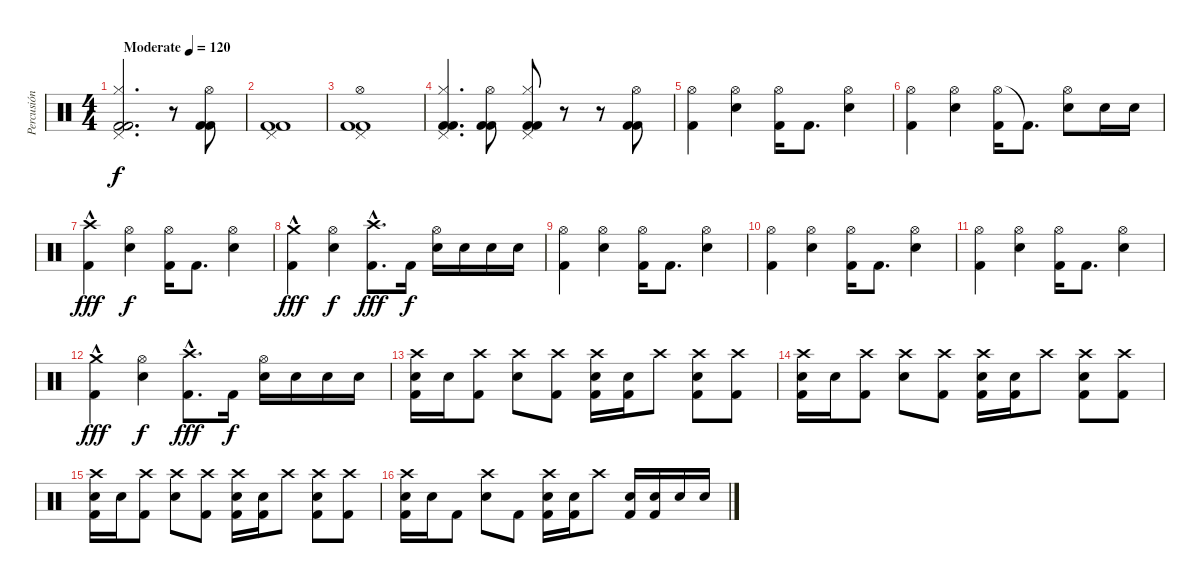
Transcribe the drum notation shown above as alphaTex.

\track ("Percusión" "Percusión") {instrument percussion}
\staff {score}
\articulation defaults
\ts (4 4)
\tempo (120 "Moderate")
\clef neutral
\ks c
("Pedal Hi-Hat (hit)" "Hi-Hat (closed)" "Kick (hit) 2" "Kick (hit) 2").2{d dy f} r.8 ("Hi-Hat (open)" "Kick (hit) 2" "Kick (hit) 2").8 |
("Pedal Hi-Hat (hit)" "Kick (hit) 2" "Kick (hit) 2").1 |
("Hi-Hat (open)" "Pedal Hi-Hat (hit)" "Kick (hit) 2" "Kick (hit) 2").1 |
("Pedal Hi-Hat (hit)" "Hi-Hat (closed)" "Kick (hit) 2" "Kick (hit) 2").4{d} ("Hi-Hat (open)" "Kick (hit) 2" "Kick (hit) 2").8 ("Pedal Hi-Hat (hit)" "Hi-Hat (closed)" "Kick (hit) 2" "Kick (hit) 2").8 r.8 r.8 ("Hi-Hat (open)" "Kick (hit) 2" "Kick (hit) 2").8 |
("Hi-Hat (open)" "Kick (hit) 2").4 ("Hi-Hat (open)" "Electric Snare (hit)").4 ("Hi-Hat (open)" "Kick (hit) 2").16 "Kick (hit) 2".8{d} ("Hi-Hat (open)" "Electric Snare (hit)").4 |
("Hi-Hat (open)" "Kick (hit) 2").4 ("Hi-Hat (open)" "Electric Snare (hit)").4 ("Hi-Hat (open)" "Kick (hit) 2").16 "Kick (hit) 2"{t}.8{d} ("Hi-Hat (open)" "Electric Snare (hit)").8 "Electric Snare (hit)".16 "Electric Snare (hit)".16 |
("Crash high (hit)"{hac} "Kick (hit) 2").4{dy fff} ("Hi-Hat (open)" "Electric Snare (hit)").4{dy f} ("Hi-Hat (open)" "Kick (hit) 2").16 "Kick (hit) 2".8{d} ("Hi-Hat (open)" "Electric Snare (hit)").4 |
("Crash medium (hit)"{hac} "Kick (hit) 2").4{dy fff} ("Hi-Hat (open)" "Electric Snare (hit)").4{dy f} ("Crash high (hit)"{hac} "Kick (hit) 2").8{d dy fff} "Kick (hit) 2".16{dy f} ("Hi-Hat (open)" "Electric Snare (hit)").16 "Electric Snare (hit)".16 "Electric Snare (hit)".16 "Electric Snare (hit)".16 |
("Hi-Hat (open)" "Kick (hit) 2").4 ("Hi-Hat (open)" "Electric Snare (hit)").4 ("Hi-Hat (open)" "Kick (hit) 2").16 "Kick (hit) 2".8{d} ("Hi-Hat (open)" "Electric Snare (hit)").4 |
("Hi-Hat (open)" "Kick (hit) 2").4 ("Hi-Hat (open)" "Electric Snare (hit)").4 ("Hi-Hat (open)" "Kick (hit) 2").16 "Kick (hit) 2".8{d} ("Hi-Hat (open)" "Electric Snare (hit)").4 |
("Hi-Hat (open)" "Kick (hit) 2").4 ("Hi-Hat (open)" "Electric Snare (hit)").4 ("Hi-Hat (open)" "Kick (hit) 2").16 "Kick (hit) 2".8{d} ("Hi-Hat (open)" "Electric Snare (hit)").4 |
("Crash medium (hit)"{hac} "Kick (hit) 2").4{dy fff} ("Hi-Hat (open)" "Electric Snare (hit)").4{dy f} ("Crash high (hit)"{hac} "Kick (hit) 2").8{d dy fff} "Kick (hit) 2".16{dy f} ("Hi-Hat (open)" "Electric Snare (hit)").16 "Electric Snare (hit)".16 "Electric Snare (hit)".16 "Electric Snare (hit)".16 |
("Crash high (hit)" "Electric Snare (hit)" "Kick (hit) 2").16 "Electric Snare (hit)".16 ("Crash high (hit)" "Kick (hit) 2").8 ("Crash high (hit)" "Electric Snare (hit)").8 ("Crash high (hit)" "Kick (hit) 2").8 ("Crash high (hit)" "Electric Snare (hit)" "Kick (hit) 2").16 ("Electric Snare (hit)" "Kick (hit) 2").16 "Crash high (hit)".8 ("Crash high (hit)" "Electric Snare (hit)" "Kick (hit) 2").8 ("Crash high (hit)" "Kick (hit) 2").8 |
("Crash high (hit)" "Electric Snare (hit)" "Kick (hit) 2").16 "Electric Snare (hit)".16 ("Crash high (hit)" "Kick (hit) 2").8 ("Crash high (hit)" "Electric Snare (hit)").8 ("Crash high (hit)" "Kick (hit) 2").8 ("Crash high (hit)" "Electric Snare (hit)" "Kick (hit) 2").16 ("Electric Snare (hit)" "Kick (hit) 2").16 "Crash high (hit)".8 ("Crash high (hit)" "Electric Snare (hit)" "Kick (hit) 2").8 ("Crash high (hit)" "Kick (hit) 2").8 |
("Crash high (hit)" "Electric Snare (hit)" "Kick (hit) 2").16 "Electric Snare (hit)".16 ("Crash high (hit)" "Kick (hit) 2").8 ("Crash high (hit)" "Electric Snare (hit)").8 ("Crash high (hit)" "Kick (hit) 2").8 ("Crash high (hit)" "Electric Snare (hit)" "Kick (hit) 2").16 ("Electric Snare (hit)" "Kick (hit) 2").16 "Crash high (hit)".8 ("Crash high (hit)" "Electric Snare (hit)" "Kick (hit) 2").8 ("Crash high (hit)" "Kick (hit) 2").8 |
("Crash high (hit)" "Electric Snare (hit)" "Kick (hit) 2").16 "Electric Snare (hit)".16 "Kick (hit) 2".8 ("Crash high (hit)" "Electric Snare (hit)").8 "Kick (hit) 2".8 ("Crash high (hit)" "Electric Snare (hit)" "Kick (hit) 2").16 ("Electric Snare (hit)" "Kick (hit) 2").16 "Crash high (hit)".8 ("Electric Snare (hit)" "Kick (hit) 2").16 ("Electric Snare (hit)" "Kick (hit) 2").16 "Electric Snare (hit)".16 "Electric Snare (hit)".16
